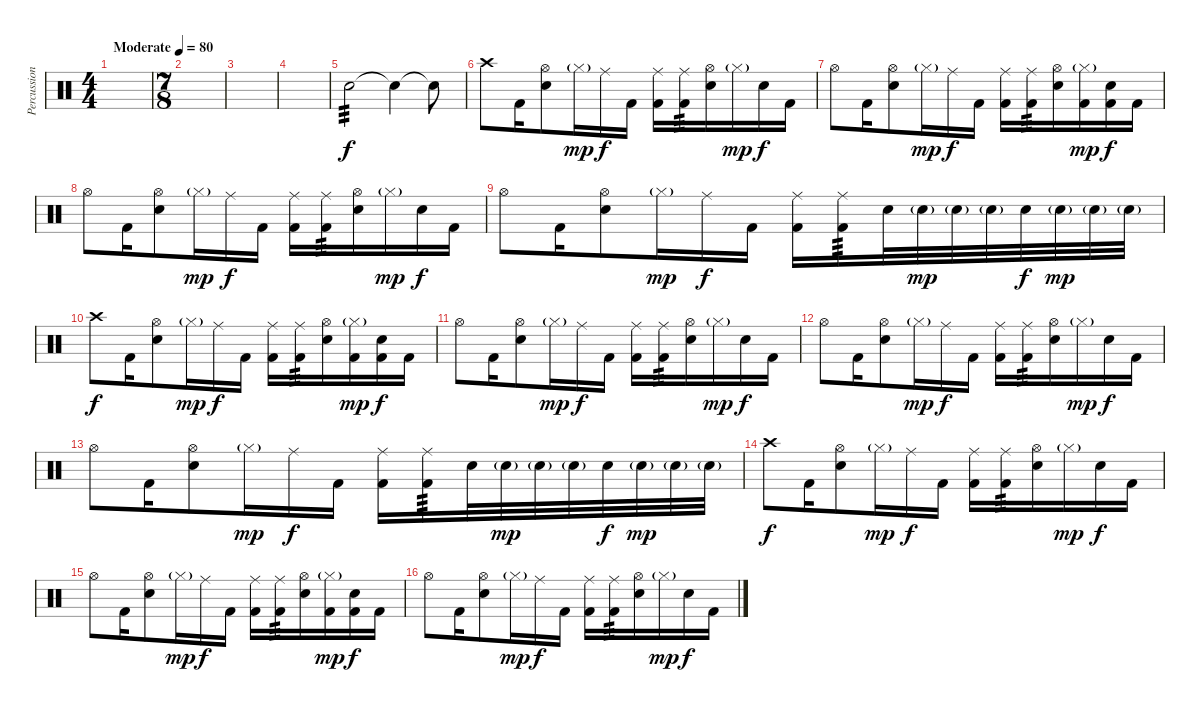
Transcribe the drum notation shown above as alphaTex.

\track ("Percussion" "Percussion") {instrument percussion}
\staff {score}
\articulation defaults
\ts (4 4)
\tempo (80 "Moderate")
\clef neutral
\ks c
|
\ts (7 8)
|
|
|
"Snare (hit) 2".2{tp 3} "Snare (hit)"{t}.4{dy f} "Snare (hit)"{t}.8 |
"Crash high (hit)".8 "Kick (hit) 2".16 ("Hi-Hat (open)" "Snare (hit) 2").8 "Hi-Hat (closed)"{g}.16{dy mp} "Ride (middle)".16{dy f} "Kick (hit) 2".16 ("Ride (middle)" "Kick (hit) 2").16 ("Ride (middle)" "Kick (hit) 2").16{tp 3} ("Hi-Hat (open)" "Snare (hit) 2").16 "Hi-Hat (closed)"{g}.16{dy mp} "Snare (hit) 2".16{dy f} "Kick (hit) 2".16 |
"Hi-Hat (open)".8 "Kick (hit) 2".16 ("Hi-Hat (open)" "Snare (hit) 2").8 "Hi-Hat (closed)"{g}.16{dy mp} "Ride (middle)".16{dy f} "Kick (hit) 2".16 ("Ride (middle)" "Kick (hit) 2").16 ("Ride (middle)" "Kick (hit) 2").16{tp 3} ("Hi-Hat (open)" "Snare (hit) 2").16 ("Hi-Hat (closed)"{g} "Kick (hit) 2").16{dy mp} ("Snare (hit) 2" "Kick (hit) 2").16{dy f} "Kick (hit) 2".16 |
"Hi-Hat (open)".8 "Kick (hit) 2".16 ("Hi-Hat (open)" "Snare (hit) 2").8 "Hi-Hat (closed)"{g}.16{dy mp} "Ride (middle)".16{dy f} "Kick (hit) 2".16 ("Ride (middle)" "Kick (hit) 2").16 ("Ride (middle)" "Kick (hit) 2").16{tp 3} ("Hi-Hat (open)" "Snare (hit) 2").16 "Hi-Hat (closed)"{g}.16{dy mp} "Snare (hit) 2".16{dy f} "Kick (hit) 2".16 |
"Hi-Hat (open)".8 "Kick (hit) 2".16 ("Hi-Hat (open)" "Snare (hit) 2").8 "Hi-Hat (closed)"{g}.16{dy mp} "Ride (middle)".16{dy f} "Kick (hit) 2".16 ("Ride (middle)" "Kick (hit) 2").16 ("Ride (middle)" "Kick (hit) 2").16{tp 3} "Snare (hit) 2".32 "Snare (hit) 2"{g}.32{dy mp} "Snare (hit) 2"{g}.32 "Snare (hit) 2"{g}.32 "Snare (hit) 2".32{dy f} "Snare (hit) 2"{g}.32{dy mp} "Snare (hit) 2"{g}.32 "Snare (hit) 2"{g}.32 |
"Crash high (hit)".8{dy f} "Kick (hit) 2".16 ("Hi-Hat (open)" "Snare (hit) 2").8 "Hi-Hat (closed)"{g}.16{dy mp} "Ride (middle)".16{dy f} "Kick (hit) 2".16 ("Ride (middle)" "Kick (hit) 2").16 ("Ride (middle)" "Kick (hit) 2").16{tp 3} ("Hi-Hat (open)" "Snare (hit) 2").16 ("Hi-Hat (closed)"{g} "Kick (hit) 2").16{dy mp} ("Snare (hit) 2" "Kick (hit) 2").16{dy f} "Kick (hit) 2".16 |
"Hi-Hat (open)".8 "Kick (hit) 2".16 ("Hi-Hat (open)" "Snare (hit) 2").8 "Hi-Hat (closed)"{g}.16{dy mp} "Ride (middle)".16{dy f} "Kick (hit) 2".16 ("Ride (middle)" "Kick (hit) 2").16 ("Ride (middle)" "Kick (hit) 2").16{tp 3} ("Hi-Hat (open)" "Snare (hit) 2").16 "Hi-Hat (closed)"{g}.16{dy mp} "Snare (hit) 2".16{dy f} "Kick (hit) 2".16 |
"Hi-Hat (open)".8 "Kick (hit) 2".16 ("Hi-Hat (open)" "Snare (hit) 2").8 "Hi-Hat (closed)"{g}.16{dy mp} "Ride (middle)".16{dy f} "Kick (hit) 2".16 ("Ride (middle)" "Kick (hit) 2").16 ("Ride (middle)" "Kick (hit) 2").16{tp 3} ("Hi-Hat (open)" "Snare (hit) 2").16 "Hi-Hat (closed)"{g}.16{dy mp} "Snare (hit) 2".16{dy f} "Kick (hit) 2".16 |
"Hi-Hat (open)".8 "Kick (hit) 2".16 ("Hi-Hat (open)" "Snare (hit) 2").8 "Hi-Hat (closed)"{g}.16{dy mp} "Ride (middle)".16{dy f} "Kick (hit) 2".16 ("Ride (middle)" "Kick (hit) 2").16 ("Ride (middle)" "Kick (hit) 2").16{tp 3} "Snare (hit) 2".32 "Snare (hit) 2"{g}.32{dy mp} "Snare (hit) 2"{g}.32 "Snare (hit) 2"{g}.32 "Snare (hit) 2".32{dy f} "Snare (hit) 2"{g}.32{dy mp} "Snare (hit) 2"{g}.32 "Snare (hit) 2"{g}.32 |
"Crash high (hit)".8{dy f} "Kick (hit) 2".16 ("Hi-Hat (open)" "Snare (hit) 2").8 "Hi-Hat (closed)"{g}.16{dy mp} "Ride (middle)".16{dy f} "Kick (hit) 2".16 ("Ride (middle)" "Kick (hit) 2").16 ("Ride (middle)" "Kick (hit) 2").16{tp 3} ("Hi-Hat (open)" "Snare (hit) 2").16 "Hi-Hat (closed)"{g}.16{dy mp} "Snare (hit) 2".16{dy f} "Kick (hit) 2".16 |
"Hi-Hat (open)".8 "Kick (hit) 2".16 ("Hi-Hat (open)" "Snare (hit) 2").8 "Hi-Hat (closed)"{g}.16{dy mp} "Ride (middle)".16{dy f} "Kick (hit) 2".16 ("Ride (middle)" "Kick (hit) 2").16 ("Ride (middle)" "Kick (hit) 2").16{tp 3} ("Hi-Hat (open)" "Snare (hit) 2").16 ("Hi-Hat (closed)"{g} "Kick (hit) 2").16{dy mp} ("Snare (hit) 2" "Kick (hit) 2").16{dy f} "Kick (hit) 2".16 |
"Hi-Hat (open)".8 "Kick (hit) 2".16 ("Hi-Hat (open)" "Snare (hit) 2").8 "Hi-Hat (closed)"{g}.16{dy mp} "Ride (middle)".16{dy f} "Kick (hit) 2".16 ("Ride (middle)" "Kick (hit) 2").16 ("Ride (middle)" "Kick (hit) 2").16{tp 3} ("Hi-Hat (open)" "Snare (hit) 2").16 "Hi-Hat (closed)"{g}.16{dy mp} "Snare (hit) 2".16{dy f} "Kick (hit) 2".16
